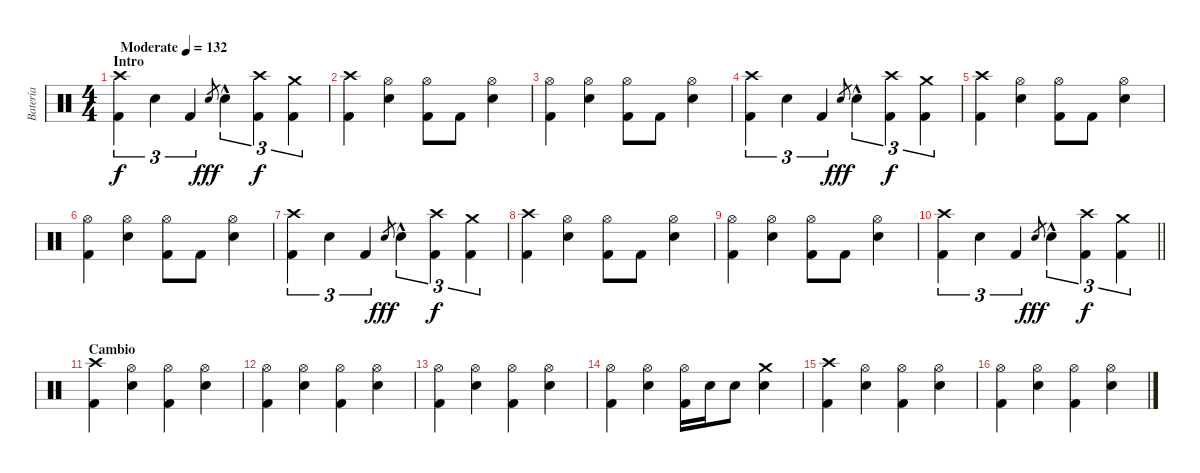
\track ("Batería" "Batería") {instrument percussion}
\staff {score}
\articulation defaults
\ts (4 4)
\section ("" "Intro")
\tempo (132 "Moderate")
\clef neutral
\ks c
("Crash high (hit)" "Kick (hit) 2").4{tu (3 2) dy f} "Electric Snare (hit)".4{tu (3 2)} "Kick (hit) 2".4{tu (3 2)} "Electric Snare (hit)".8{gr dy fff} "Electric Snare (hit)"{hac}.4{tu (3 2)} ("Kick (hit) 2" "Crash high (hit)").4{tu (3 2) dy f} ("Kick (hit) 2" "Crash medium (hit)").4{tu (3 2)} |
("Crash high (hit)" "Kick (hit) 2").4 ("Hi-Hat (open)" "Electric Snare (hit)").4 ("Kick (hit) 2" "Hi-Hat (open)").8 "Kick (hit) 2".8 ("Hi-Hat (open)" "Electric Snare (hit)").4 |
("Hi-Hat (open)" "Kick (hit) 2").4 ("Hi-Hat (open)" "Electric Snare (hit)").4 ("Kick (hit) 2" "Hi-Hat (open)").8 "Kick (hit) 2".8 ("Hi-Hat (open)" "Electric Snare (hit)").4 |
("Crash high (hit)" "Kick (hit) 2").4{tu (3 2)} "Electric Snare (hit)".4{tu (3 2)} "Kick (hit) 2".4{tu (3 2)} "Electric Snare (hit)".8{gr dy fff} "Electric Snare (hit)"{hac}.4{tu (3 2)} ("Kick (hit) 2" "Crash high (hit)").4{tu (3 2) dy f} ("Kick (hit) 2" "Crash medium (hit)").4{tu (3 2)} |
("Crash high (hit)" "Kick (hit) 2").4 ("Hi-Hat (open)" "Electric Snare (hit)").4 ("Kick (hit) 2" "Hi-Hat (open)").8 "Kick (hit) 2".8 ("Hi-Hat (open)" "Electric Snare (hit)").4 |
("Hi-Hat (open)" "Kick (hit) 2").4 ("Hi-Hat (open)" "Electric Snare (hit)").4 ("Kick (hit) 2" "Hi-Hat (open)").8 "Kick (hit) 2".8 ("Hi-Hat (open)" "Electric Snare (hit)").4 |
("Crash high (hit)" "Kick (hit) 2").4{tu (3 2)} "Electric Snare (hit)".4{tu (3 2)} "Kick (hit) 2".4{tu (3 2)} "Electric Snare (hit)".8{gr dy fff} "Electric Snare (hit)"{hac}.4{tu (3 2)} ("Kick (hit) 2" "Crash high (hit)").4{tu (3 2) dy f} ("Kick (hit) 2" "Crash medium (hit)").4{tu (3 2)} |
("Crash high (hit)" "Kick (hit) 2").4 ("Hi-Hat (open)" "Electric Snare (hit)").4 ("Kick (hit) 2" "Hi-Hat (open)").8 "Kick (hit) 2".8 ("Hi-Hat (open)" "Electric Snare (hit)").4 |
("Hi-Hat (open)" "Kick (hit) 2").4 ("Hi-Hat (open)" "Electric Snare (hit)").4 ("Kick (hit) 2" "Hi-Hat (open)").8 "Kick (hit) 2".8 ("Hi-Hat (open)" "Electric Snare (hit)").4 |
\barLineRight lightlight
("Crash high (hit)" "Kick (hit) 2").4{tu (3 2)} "Electric Snare (hit)".4{tu (3 2)} "Kick (hit) 2".4{tu (3 2)} "Electric Snare (hit)".8{gr dy fff} "Electric Snare (hit)"{hac}.4{tu (3 2)} ("Kick (hit) 2" "Crash high (hit)").4{tu (3 2) dy f} ("Kick (hit) 2" "Crash medium (hit)").4{tu (3 2)} |
\section ("" "Cambio")
("Crash high (hit)" "Kick (hit) 2").4 ("Hi-Hat (open)" "Electric Snare (hit)").4 ("Hi-Hat (open)" "Kick (hit) 2").4 ("Hi-Hat (open)" "Electric Snare (hit)").4 |
("Hi-Hat (open)" "Kick (hit) 2").4 ("Hi-Hat (open)" "Electric Snare (hit)").4 ("Hi-Hat (open)" "Kick (hit) 2").4 ("Hi-Hat (open)" "Electric Snare (hit)").4 |
("Hi-Hat (open)" "Kick (hit) 2").4 ("Hi-Hat (open)" "Electric Snare (hit)").4 ("Hi-Hat (open)" "Kick (hit) 2").4 ("Hi-Hat (open)" "Electric Snare (hit)").4 |
("Hi-Hat (open)" "Kick (hit) 2").4 ("Hi-Hat (open)" "Electric Snare (hit)").4 ("Hi-Hat (open)" "Kick (hit) 2").16 "Electric Snare (hit)".16 "Electric Snare (hit)".8 ("Electric Snare (hit)" "Crash medium (hit)").4 |
("Crash high (hit)" "Kick (hit) 2").4 ("Hi-Hat (open)" "Electric Snare (hit)").4 ("Hi-Hat (open)" "Kick (hit) 2").4 ("Hi-Hat (open)" "Electric Snare (hit)").4 |
("Hi-Hat (open)" "Kick (hit) 2").4 ("Hi-Hat (open)" "Electric Snare (hit)").4 ("Hi-Hat (open)" "Kick (hit) 2").4 ("Hi-Hat (open)" "Electric Snare (hit)").4
